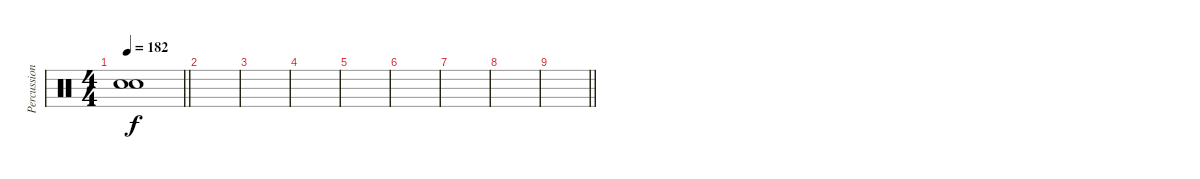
\track ("Percussion" "Percussion") {instrument percussion}
\staff {score}
\articulation defaults
\ts (4 4)
\tempo 182
\clef neutral
\barLineRight lightlight
\ks c
("Snare (hit)"{t} "Snare (hit)"{t}).1{dy f} |
|
|
|
|
|
|
|
\barLineRight lightlight
